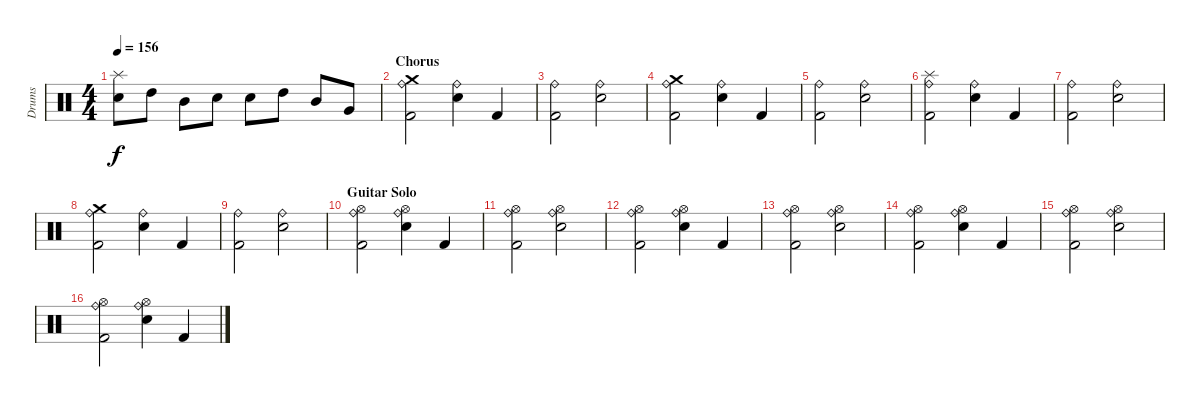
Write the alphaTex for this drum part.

\track ("Drums" "Drums") {instrument percussion}
\staff {score}
\articulation defaults
\ts (4 4)
\tempo 156
\clef neutral
\ks c
("Electric Snare (hit)" "Splash (hit)").8{dy f} "High Tom (hit)".8 "Mid Tom (hit)".8 "Electric Snare (hit)".8 "Electric Snare (hit)".8 "High Tom (hit)".8 "Mid Tom (hit)".8 "Very Low Tom (hit)".8 |
\section ("" "Chorus")
("Kick (hit) 2" "Ride (bell)" "Crash medium (hit)").2 ("Electric Snare (hit)" "Ride (bell)").4 "Kick (hit) 2".4 |
("Kick (hit) 2" "Ride (bell)").2 ("Electric Snare (hit)" "Ride (bell)").2 |
("Kick (hit) 2" "Ride (bell)" "Crash medium (hit)").2 ("Electric Snare (hit)" "Ride (bell)").4 "Kick (hit) 2".4 |
("Kick (hit) 2" "Ride (bell)").2 ("Electric Snare (hit)" "Ride (bell)").2 |
("Kick (hit) 2" "Splash (hit)" "Ride (bell)").2 ("Electric Snare (hit)" "Ride (bell)").4 "Kick (hit) 2".4 |
("Kick (hit) 2" "Ride (bell)").2 ("Electric Snare (hit)" "Ride (bell)").2 |
("Kick (hit) 2" "Ride (bell)" "Crash medium (hit)").2 ("Electric Snare (hit)" "Ride (bell)").4 "Kick (hit) 2".4 |
("Kick (hit) 2" "Ride (bell)").2 ("Electric Snare (hit)" "Ride (bell)").2 |
\section ("" "Guitar Solo")
("Kick (hit) 2" "Ride (bell)" "Hi-Hat (open)").2 ("Electric Snare (hit)" "Ride (bell)" "Hi-Hat (open)").4 "Kick (hit) 2".4 |
("Kick (hit) 2" "Ride (bell)" "Hi-Hat (open)").2 ("Electric Snare (hit)" "Ride (bell)" "Hi-Hat (open)").2 |
("Kick (hit) 2" "Ride (bell)" "Hi-Hat (open)").2 ("Electric Snare (hit)" "Ride (bell)" "Hi-Hat (open)").4 "Kick (hit) 2".4 |
("Kick (hit) 2" "Ride (bell)" "Hi-Hat (open)").2 ("Electric Snare (hit)" "Ride (bell)" "Hi-Hat (open)").2 |
("Kick (hit) 2" "Ride (bell)" "Hi-Hat (open)").2 ("Electric Snare (hit)" "Ride (bell)" "Hi-Hat (open)").4 "Kick (hit) 2".4 |
("Kick (hit) 2" "Ride (bell)" "Hi-Hat (open)").2 ("Electric Snare (hit)" "Ride (bell)" "Hi-Hat (open)").2 |
("Kick (hit) 2" "Ride (bell)" "Hi-Hat (open)").2 ("Electric Snare (hit)" "Ride (bell)" "Hi-Hat (open)").4 "Kick (hit) 2".4
